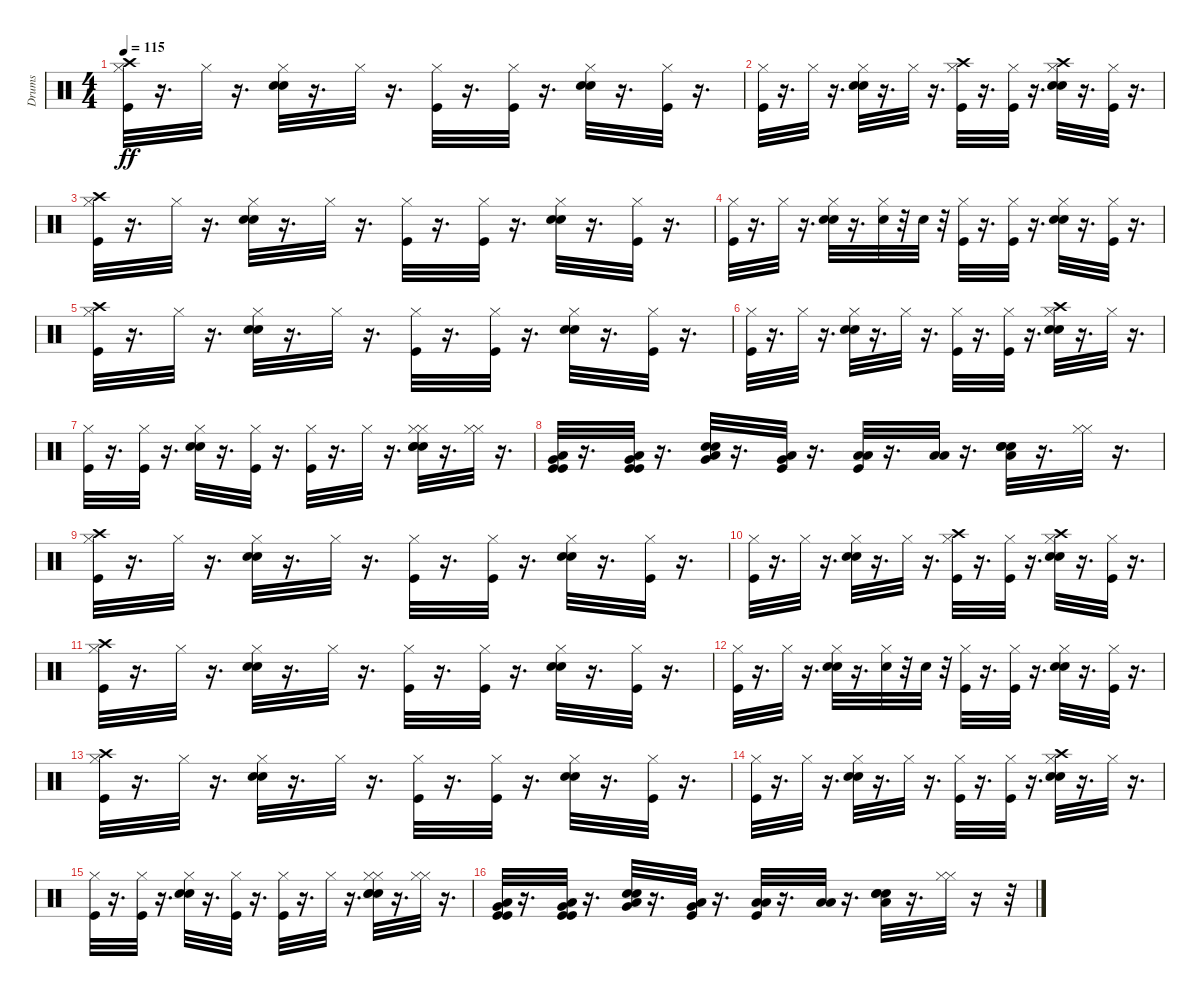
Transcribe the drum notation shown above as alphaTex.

\track ("Drums" "Drums") {instrument percussion}
\staff {score}
\articulation defaults
\ts (4 4)
\tempo 115
\clef neutral
\ks c
("Crash high (hit)" "Kick (hit)" "Hi-Hat (closed)").32{dy ff} r.16{d} "Hi-Hat (closed)".32 r.16{d} ("Electric Snare (hit)" "Snare (hit) 2" "Hi-Hat (closed)").32 r.16{d} "Hi-Hat (closed)".32 r.16{d} ("Kick (hit)" "Hi-Hat (closed)").32 r.16{d} ("Kick (hit)" "Hi-Hat (closed)").32 r.16{d} ("Electric Snare (hit)" "Hi-Hat (closed)" "Snare (hit) 2").32 r.16{d} ("Kick (hit)" "Hi-Hat (closed)").32 r.16{d} |
("Kick (hit)" "Hi-Hat (closed)").32 r.16{d} "Hi-Hat (closed)".32 r.16{d} ("Electric Snare (hit)" "Snare (hit) 2" "Hi-Hat (closed)").32 r.16{d} "Hi-Hat (closed)".32 r.16{d} ("Crash high (hit)" "Kick (hit)" "Hi-Hat (closed)").32 r.16{d} ("Kick (hit)" "Hi-Hat (closed)").32 r.16{d} ("Crash high (hit)" "Electric Snare (hit)" "Hi-Hat (closed)" "Snare (hit) 2").32 r.16{d} ("Kick (hit)" "Hi-Hat (closed)").32 r.16{d} |
("Crash high (hit)" "Kick (hit)" "Hi-Hat (closed)").32 r.16{d} "Hi-Hat (closed)".32 r.16{d} ("Electric Snare (hit)" "Snare (hit) 2" "Hi-Hat (closed)").32 r.16{d} "Hi-Hat (closed)".32 r.16{d} ("Kick (hit)" "Hi-Hat (closed)").32 r.16{d} ("Kick (hit)" "Hi-Hat (closed)").32 r.16{d} ("Electric Snare (hit)" "Hi-Hat (closed)" "Snare (hit) 2").32 r.16{d} ("Kick (hit)" "Hi-Hat (closed)").32 r.16{d} |
("Kick (hit)" "Hi-Hat (closed)").32 r.16{d} "Hi-Hat (closed)".32 r.16{d} ("Electric Snare (hit)" "Snare (hit) 2" "Hi-Hat (closed)").32 r.16{d} ("Electric Snare (hit)" "Hi-Hat (closed)").32 r.32 "Electric Snare (hit)".32 r.32 ("Kick (hit)" "Hi-Hat (closed)").32 r.16{d} ("Kick (hit)" "Hi-Hat (closed)").32 r.16{d} ("Electric Snare (hit)" "Hi-Hat (closed)" "Snare (hit) 2").32 r.16{d} ("Kick (hit)" "Hi-Hat (closed)").32 r.16{d} |
("Crash high (hit)" "Kick (hit)" "Hi-Hat (closed)").32 r.16{d} "Hi-Hat (closed)".32 r.16{d} ("Electric Snare (hit)" "Snare (hit) 2" "Hi-Hat (closed)").32 r.16{d} "Hi-Hat (closed)".32 r.16{d} ("Kick (hit)" "Hi-Hat (closed)").32 r.16{d} ("Kick (hit)" "Hi-Hat (closed)").32 r.16{d} ("Electric Snare (hit)" "Hi-Hat (closed)" "Snare (hit) 2").32 r.16{d} ("Kick (hit)" "Hi-Hat (closed)").32 r.16{d} |
("Kick (hit)" "Hi-Hat (closed)").32 r.16{d} "Hi-Hat (closed)".32 r.16{d} ("Electric Snare (hit)" "Snare (hit) 2" "Hi-Hat (closed)").32 r.16{d} "Hi-Hat (closed)".32 r.16{d} ("Kick (hit)" "Hi-Hat (closed)").32 r.16{d} ("Kick (hit)" "Hi-Hat (closed)").32 r.16{d} ("Crash high (hit)" "Electric Snare (hit)" "Snare (hit) 2" "Hi-Hat (closed)").32 r.16{d} "Hi-Hat (closed)".32 r.16{d} |
("Kick (hit)" "Hi-Hat (closed)").32 r.16{d} ("Kick (hit)" "Hi-Hat (closed)").32 r.16{d} ("Electric Snare (hit)" "Hi-Hat (closed)" "Snare (hit) 2").32 r.16{d} ("Kick (hit)" "Hi-Hat (closed)").32 r.16{d} ("Kick (hit)" "Hi-Hat (closed)").32 r.16{d} "Hi-Hat (closed)".32 r.16{d} ("Electric Snare (hit)" "Snare (hit) 2" "Hi-Hat (closed)" "Snare (hit) 2" "Hi-Hat (closed)").32 r.16{d} ("Hi-Hat (closed)" "Hi-Hat (closed)").32 r.16{d} |
("Very Low Tom (hit)" "Low Tom (hit)" "Kick (hit)" "Kick (hit)").32 r.16{d} ("Very Low Tom (hit)" "Low Tom (hit)" "Kick (hit)" "Kick (hit)").32 r.16{d} ("Very Low Tom (hit)" "Low Tom (hit)" "Electric Snare (hit)" "Snare (hit) 2").32 r.16{d} ("Very Low Tom (hit)" "Low Tom (hit)" "Kick (hit)").32 r.16{d} ("Low Floor Tom (hit)" "Low Tom (hit)" "Kick (hit)").32 r.16{d} ("Low Floor Tom (hit)" "Low Tom (hit)").32 r.16{d} ("Low Floor Tom (hit)" "Electric Snare (hit)" "Snare (hit) 2" "Snare (hit) 2").32 r.16{d} ("Hi-Hat (closed)" "Hi-Hat (closed)").32 r.16{d} |
("Crash high (hit)" "Kick (hit)" "Hi-Hat (closed)").32 r.16{d} "Hi-Hat (closed)".32 r.16{d} ("Electric Snare (hit)" "Snare (hit) 2" "Hi-Hat (closed)").32 r.16{d} "Hi-Hat (closed)".32 r.16{d} ("Kick (hit)" "Hi-Hat (closed)").32 r.16{d} ("Kick (hit)" "Hi-Hat (closed)").32 r.16{d} ("Electric Snare (hit)" "Hi-Hat (closed)" "Snare (hit) 2").32 r.16{d} ("Kick (hit)" "Hi-Hat (closed)").32 r.16{d} |
("Kick (hit)" "Hi-Hat (closed)").32 r.16{d} "Hi-Hat (closed)".32 r.16{d} ("Electric Snare (hit)" "Snare (hit) 2" "Hi-Hat (closed)").32 r.16{d} "Hi-Hat (closed)".32 r.16{d} ("Crash high (hit)" "Kick (hit)" "Hi-Hat (closed)").32 r.16{d} ("Kick (hit)" "Hi-Hat (closed)").32 r.16{d} ("Crash high (hit)" "Electric Snare (hit)" "Hi-Hat (closed)" "Snare (hit) 2").32 r.16{d} ("Kick (hit)" "Hi-Hat (closed)").32 r.16{d} |
("Crash high (hit)" "Kick (hit)" "Hi-Hat (closed)").32 r.16{d} "Hi-Hat (closed)".32 r.16{d} ("Electric Snare (hit)" "Snare (hit) 2" "Hi-Hat (closed)").32 r.16{d} "Hi-Hat (closed)".32 r.16{d} ("Kick (hit)" "Hi-Hat (closed)").32 r.16{d} ("Kick (hit)" "Hi-Hat (closed)").32 r.16{d} ("Electric Snare (hit)" "Hi-Hat (closed)" "Snare (hit) 2").32 r.16{d} ("Kick (hit)" "Hi-Hat (closed)").32 r.16{d} |
("Kick (hit)" "Hi-Hat (closed)").32 r.16{d} "Hi-Hat (closed)".32 r.16{d} ("Electric Snare (hit)" "Snare (hit) 2" "Hi-Hat (closed)").32 r.16{d} ("Electric Snare (hit)" "Hi-Hat (closed)").32 r.32 "Electric Snare (hit)".32 r.32 ("Kick (hit)" "Hi-Hat (closed)").32 r.16{d} ("Kick (hit)" "Hi-Hat (closed)").32 r.16{d} ("Electric Snare (hit)" "Hi-Hat (closed)" "Snare (hit) 2").32 r.16{d} ("Kick (hit)" "Hi-Hat (closed)").32 r.16{d} |
("Crash high (hit)" "Kick (hit)" "Hi-Hat (closed)").32 r.16{d} "Hi-Hat (closed)".32 r.16{d} ("Electric Snare (hit)" "Snare (hit) 2" "Hi-Hat (closed)").32 r.16{d} "Hi-Hat (closed)".32 r.16{d} ("Kick (hit)" "Hi-Hat (closed)").32 r.16{d} ("Kick (hit)" "Hi-Hat (closed)").32 r.16{d} ("Electric Snare (hit)" "Hi-Hat (closed)" "Snare (hit) 2").32 r.16{d} ("Kick (hit)" "Hi-Hat (closed)").32 r.16{d} |
("Kick (hit)" "Hi-Hat (closed)").32 r.16{d} "Hi-Hat (closed)".32 r.16{d} ("Electric Snare (hit)" "Snare (hit) 2" "Hi-Hat (closed)").32 r.16{d} "Hi-Hat (closed)".32 r.16{d} ("Kick (hit)" "Hi-Hat (closed)").32 r.16{d} ("Kick (hit)" "Hi-Hat (closed)").32 r.16{d} ("Crash high (hit)" "Electric Snare (hit)" "Snare (hit) 2" "Hi-Hat (closed)").32 r.16{d} "Hi-Hat (closed)".32 r.16{d} |
("Kick (hit)" "Hi-Hat (closed)").32 r.16{d} ("Kick (hit)" "Hi-Hat (closed)").32 r.16{d} ("Electric Snare (hit)" "Hi-Hat (closed)" "Snare (hit) 2").32 r.16{d} ("Kick (hit)" "Hi-Hat (closed)").32 r.16{d} ("Kick (hit)" "Hi-Hat (closed)").32 r.16{d} "Hi-Hat (closed)".32 r.16{d} ("Electric Snare (hit)" "Snare (hit) 2" "Hi-Hat (closed)" "Snare (hit) 2" "Hi-Hat (closed)").32 r.16{d} ("Hi-Hat (closed)" "Hi-Hat (closed)").32 r.16{d} |
("Very Low Tom (hit)" "Low Tom (hit)" "Kick (hit)" "Kick (hit)").32 r.16{d} ("Very Low Tom (hit)" "Low Tom (hit)" "Kick (hit)" "Kick (hit)").32 r.16{d} ("Very Low Tom (hit)" "Low Tom (hit)" "Electric Snare (hit)" "Snare (hit) 2").32 r.16{d} ("Very Low Tom (hit)" "Low Tom (hit)" "Kick (hit)").32 r.16{d} ("Low Floor Tom (hit)" "Low Tom (hit)" "Kick (hit)").32 r.16{d} ("Low Floor Tom (hit)" "Low Tom (hit)").32 r.16{d} ("Low Floor Tom (hit)" "Electric Snare (hit)" "Snare (hit) 2" "Snare (hit) 2").32 r.16{d} ("Hi-Hat (closed)" "Hi-Hat (closed)").32 r.16 r.32
